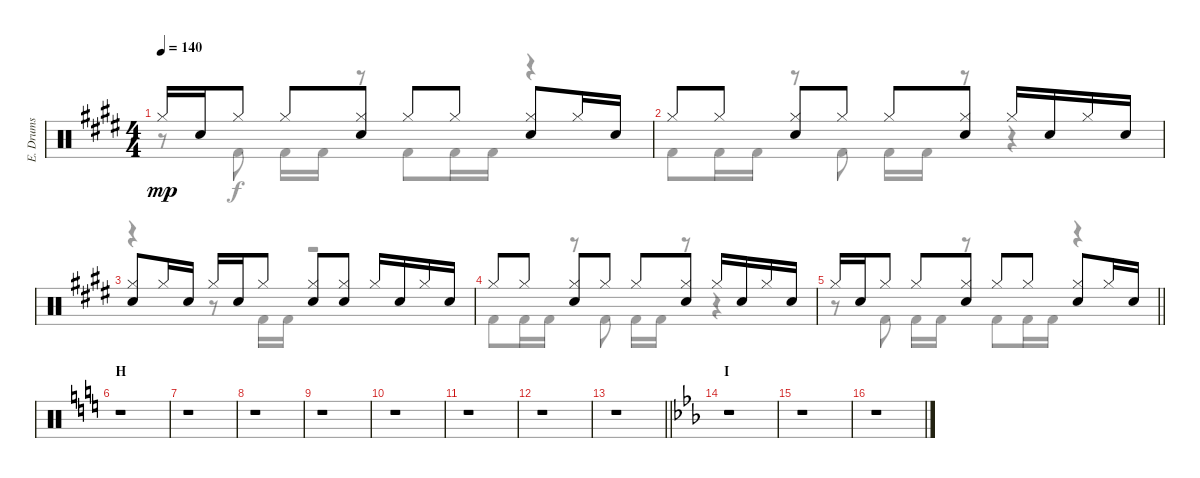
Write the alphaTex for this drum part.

\track ("E. Drums" "E. Drums") {instrument percussion}
\staff {score}
\articulation defaults
\voice
\ts (4 4)
\tempo 140
\clef neutral
\ks e "Hi-Hat (closed)".16{dy mp} "Electric Snare (hit)".16 "Hi-Hat (closed)".8 "Hi-Hat (closed)".8
("Hi-Hat (closed)" "Electric Snare (hit)").8 "Hi-Hat (closed)".8 "Hi-Hat (closed)".8 ("Hi-Hat (closed)" "Electric Snare (hit)").8 "Hi-Hat (closed)".16 "Electric Snare (hit)".16 |
"Hi-Hat (closed)".8 "Hi-Hat (closed)".8 ("Hi-Hat (closed)" "Electric Snare (hit)").8 "Hi-Hat (closed)".8 "Hi-Hat (closed)".8 ("Hi-Hat (closed)" "Electric Snare (hit)").8 "Hi-Hat (closed)".16 "Electric Snare (hit)".16 "Hi-Hat (closed)".16 "Electric Snare (hit)".16 |
("Hi-Hat (closed)" "Electric Snare (hit)").8 "Hi-Hat (closed)".16 "Electric Snare (hit)".16 "Hi-Hat (closed)".16 "Electric Snare (hit)".16 "Hi-Hat (closed)".8 ("Hi-Hat (closed)" "Electric Snare (hit)").8 ("Hi-Hat (closed)" "Electric Snare (hit)").8 "Hi-Hat (closed)".16 "Electric Snare (hit)".16 "Hi-Hat (closed)".16 "Electric Snare (hit)".16 |
"Hi-Hat (closed)".8 "Hi-Hat (closed)".8 ("Hi-Hat (closed)" "Electric Snare (hit)").8 "Hi-Hat (closed)".8 "Hi-Hat (closed)".8 ("Hi-Hat (closed)" "Electric Snare (hit)").8 "Hi-Hat (closed)".16 "Electric Snare (hit)".16 "Hi-Hat (closed)".16 "Electric Snare (hit)".16 |
\barLineRight lightlight "Hi-Hat (closed)".16 "Electric Snare (hit)".16 "Hi-Hat (closed)".8 "Hi-Hat (closed)".8
("Hi-Hat (closed)" "Electric Snare (hit)").8 "Hi-Hat (closed)".8 "Hi-Hat (closed)".8 ("Hi-Hat (closed)" "Electric Snare (hit)").8 "Hi-Hat (closed)".16 "Electric Snare (hit)".16 |
\section ("" "H")
\ks c
r.1 |
r.1 |
r.1 |
r.1 |
r.1 |
r.1 |
r.1 |
\barLineRight lightlight
r.1 |
\section ("" "I")
\ks eb
r.1 |
r.1 |
r.1
\voice
\clef neutral
\ottava regular
\simile none
\ks e
r.8{dy f} "Kick (hit) 2".8 "Kick (hit) 2".16 "Kick (hit) 2".16 r.8 "Kick (hit) 2".8 "Kick (hit) 2".16 "Kick (hit) 2".16 r.4 |
"Kick (hit) 2".8 "Kick (hit) 2".16 "Kick (hit) 2".16 r.8 "Kick (hit) 2".8 "Kick (hit) 2".16 "Kick (hit) 2".16 r.8 r.4 |
r.4 r.8 "Kick (hit) 2".16 "Kick (hit) 2".16 r.2 |
"Kick (hit) 2".8 "Kick (hit) 2".16 "Kick (hit) 2".16 r.8 "Kick (hit) 2".8 "Kick (hit) 2".16 "Kick (hit) 2".16 r.8 r.4 |
\barLineRight lightlight
r.8 "Kick (hit) 2".8 "Kick (hit) 2".16 "Kick (hit) 2".16 r.8 "Kick (hit) 2".8 "Kick (hit) 2".16 "Kick (hit) 2".16 r.4 |
\ks c
r.1 |
r.1 |
r.1 |
r.1 |
r.1 |
r.1 |
r.1 |
\barLineRight lightlight
r.1 |
\ks eb
r.1 |
r.1 |
r.1
